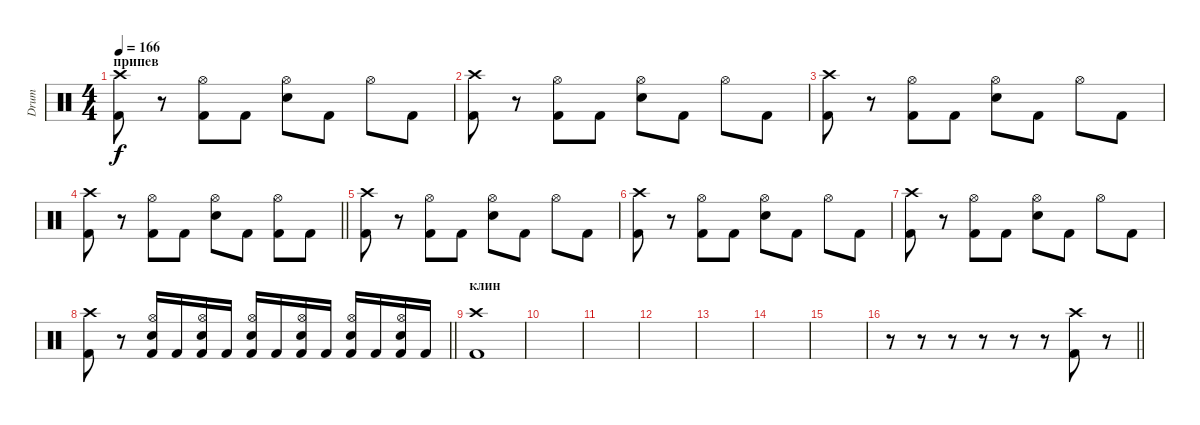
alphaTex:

\track ("Drum" "Drum") {instrument percussion}
\staff {score}
\articulation defaults
\ts (4 4)
\section ("" "припев")
\tempo 166
\clef neutral
\ks c
("Crash high (hit)" "Kick (hit) 2").8{dy f} r.8 ("Hi-Hat (open)" "Kick (hit) 2").8 "Kick (hit) 2".8 ("Hi-Hat (open)" "Snare (hit) 2").8 "Kick (hit) 2".8 "Hi-Hat (open)".8 "Kick (hit) 2".8 |
("Crash high (hit)" "Kick (hit) 2").8 r.8 ("Hi-Hat (open)" "Kick (hit) 2").8 "Kick (hit) 2".8 ("Hi-Hat (open)" "Snare (hit) 2").8 "Kick (hit) 2".8 "Hi-Hat (open)".8 "Kick (hit) 2".8 |
("Crash high (hit)" "Kick (hit) 2").8 r.8 ("Hi-Hat (open)" "Kick (hit) 2").8 "Kick (hit) 2".8 ("Hi-Hat (open)" "Snare (hit) 2").8 "Kick (hit) 2".8 "Hi-Hat (open)".8 "Kick (hit) 2".8 |
\barLineRight lightlight
("Crash high (hit)" "Kick (hit) 2").8 r.8 ("Hi-Hat (open)" "Kick (hit) 2").8 "Kick (hit) 2".8 ("Hi-Hat (open)" "Snare (hit) 2").8 "Kick (hit) 2".8 ("Hi-Hat (open)" "Kick (hit) 2").8 "Kick (hit) 2".8 |
("Crash high (hit)" "Kick (hit) 2").8 r.8 ("Hi-Hat (open)" "Kick (hit) 2").8 "Kick (hit) 2".8 ("Hi-Hat (open)" "Snare (hit) 2").8 "Kick (hit) 2".8 "Hi-Hat (open)".8 "Kick (hit) 2".8 |
("Crash high (hit)" "Kick (hit) 2").8 r.8 ("Hi-Hat (open)" "Kick (hit) 2").8 "Kick (hit) 2".8 ("Hi-Hat (open)" "Snare (hit) 2").8 "Kick (hit) 2".8 "Hi-Hat (open)".8 "Kick (hit) 2".8 |
("Crash high (hit)" "Kick (hit) 2").8 r.8 ("Hi-Hat (open)" "Kick (hit) 2").8 "Kick (hit) 2".8 ("Hi-Hat (open)" "Snare (hit) 2").8 "Kick (hit) 2".8 "Hi-Hat (open)".8 "Kick (hit) 2".8 |
\barLineRight lightlight
("Crash high (hit)" "Kick (hit) 2").8 r.8 ("Hi-Hat (open)" "Snare (hit) 2" "Kick (hit) 2").16 "Kick (hit) 2".16 ("Hi-Hat (open)" "Snare (hit) 2" "Kick (hit) 2").16 "Kick (hit) 2".16 ("Hi-Hat (open)" "Snare (hit) 2" "Kick (hit) 2").16 "Kick (hit) 2".16 ("Hi-Hat (open)" "Snare (hit) 2" "Kick (hit) 2").16 "Kick (hit) 2".16 ("Hi-Hat (open)" "Snare (hit) 2" "Kick (hit) 2").16 "Kick (hit) 2".16 ("Hi-Hat (open)" "Snare (hit) 2" "Kick (hit) 2").16 "Kick (hit) 2".16 |
\section ("" "клин")
("Crash high (hit)" "Kick (hit) 2").1 |
|
|
|
|
|
|
\barLineRight lightlight
r.8 r.8 r.8 r.8 r.8 r.8 ("Crash high (hit)" "Kick (hit) 2").8 r.8
